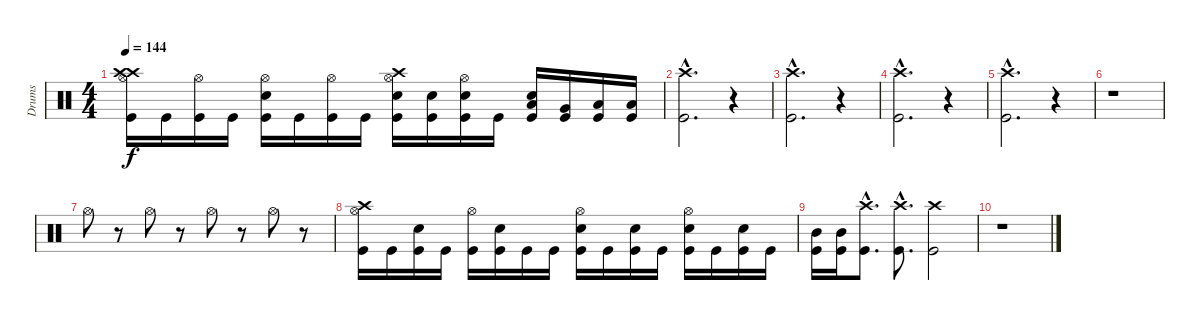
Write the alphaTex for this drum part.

\track ("Drums" "Drums") {instrument percussion}
\staff {score}
\articulation defaults
\ts (4 4)
\tempo 144
\clef neutral
\ks c
("Crash high (hit)" "Hi-Hat (open)" "Crash high (hit)" "Kick (hit)").16{dy f} "Kick (hit)".16 ("Kick (hit)" "Hi-Hat (open)").16 "Kick (hit)".16 ("Electric Snare (hit)" "Kick (hit)" "Hi-Hat (open)").16 "Kick (hit)".16 ("Kick (hit)" "Hi-Hat (open)").16 "Kick (hit)".16 ("Electric Snare (hit)" "Crash high (hit)" "Hi-Hat (open)" "Kick (hit)").16 ("Electric Snare (hit)" "Kick (hit)").16 ("Electric Snare (hit)" "Kick (hit)" "Hi-Hat (open)").16 "Kick (hit)".16 ("Low Tom (hit)" "Electric Snare (hit)" "Kick (hit)").16 ("Very Low Tom (hit)" "Kick (hit)").16 ("Low Floor Tom (hit)" "Kick (hit)").16 ("Low Floor Tom (hit)" "Kick (hit)").16 |
("Crash high (hit)"{hac} "Kick (hit)"{hac}).2{d} r.4 |
("Crash high (hit)"{hac} "Kick (hit)"{hac}).2{d} r.4 |
("Crash high (hit)"{hac} "Kick (hit)"{hac}).2{d} r.4 |
("Crash high (hit)"{hac} "Kick (hit)"{hac}).2{d} r.4 |
r.1 |
"Hi-Hat (open)".8 r.8 "Hi-Hat (open)".8 r.8 "Hi-Hat (open)".8 r.8 "Hi-Hat (open)".8 r.8 |
("Crash high (hit)" "Hi-Hat (open)" "Kick (hit)").16 "Kick (hit)".16 ("Electric Snare (hit)" "Kick (hit)").16 "Kick (hit)".16 ("Hi-Hat (open)" "Kick (hit)").16 ("Electric Snare (hit)" "Kick (hit)").16 "Kick (hit)".16 "Kick (hit)".16 ("Hi-Hat (open)" "Electric Snare (hit)" "Kick (hit)").16 "Kick (hit)".16 ("Electric Snare (hit)" "Kick (hit)").16 "Kick (hit)".16 ("Hi-Hat (open)" "Electric Snare (hit)" "Kick (hit)").16 "Kick (hit)".16 ("Electric Snare (hit)" "Kick (hit)").16 "Kick (hit)".16 |
("Mid Tom (hit)" "Kick (hit)").16 ("Mid Tom (hit)" "Kick (hit)").16 ("Crash high (hit)"{hac} "Kick (hit)").8{d} ("Crash high (hit)"{hac} "Kick (hit)").8{d} ("Crash high (hit)" "Kick (hit)").2 |
r.1
